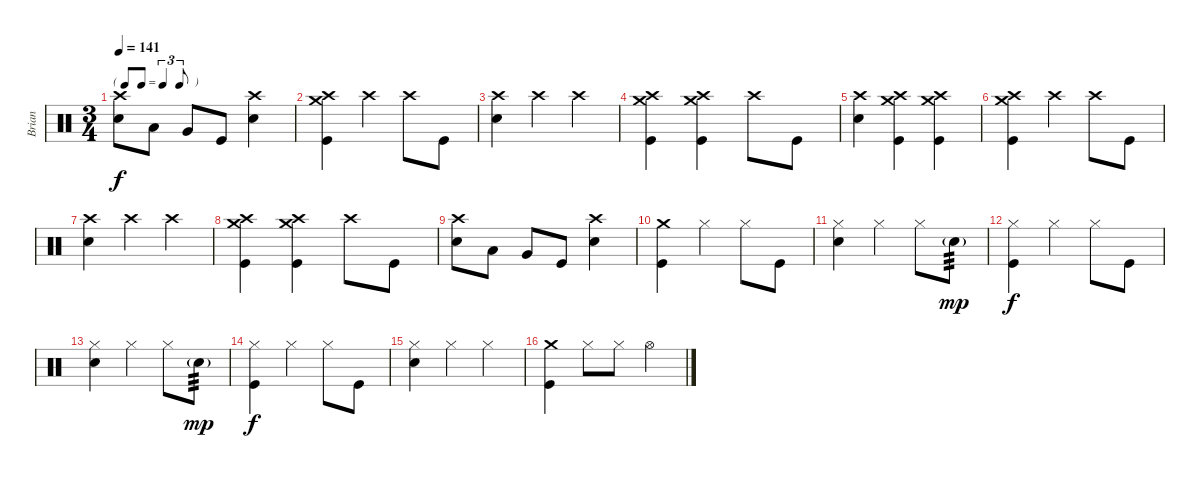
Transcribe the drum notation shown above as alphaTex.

\track ("Brian" "Brian") {instrument percussion}
\staff {score}
\articulation defaults
\ts (3 4)
\tf triplet8th
\tempo 141
\clef neutral
\ks c
("Crash high (hit)" "Electric Snare (hit)").8{dy f} "Low Tom (hit)".8 "Very Low Tom (hit)".8 "Kick (hit)".8 ("Crash high (hit)" "Electric Snare (hit)").4 |
("Crash medium (hit)" "Crash high (hit)" "Kick (hit)").4 "Crash high (hit)".4 "Crash high (hit)".8 "Kick (hit)".8 |
("Crash high (hit)" "Electric Snare (hit)").4 "Crash high (hit)".4 "Crash high (hit)".4 |
("Crash medium (hit)" "Crash high (hit)" "Kick (hit)").4 ("Crash medium (hit)" "Crash high (hit)" "Kick (hit)").4 "Crash high (hit)".8 "Kick (hit)".8 |
("Crash high (hit)" "Electric Snare (hit)").4 ("Crash medium (hit)" "Crash high (hit)" "Kick (hit)").4 ("Crash medium (hit)" "Crash high (hit)" "Kick (hit)").4 |
("Crash medium (hit)" "Crash high (hit)" "Kick (hit)").4 "Crash high (hit)".4 "Crash high (hit)".8 "Kick (hit)".8 |
("Crash high (hit)" "Electric Snare (hit)").4 "Crash high (hit)".4 "Crash high (hit)".4 |
("Crash medium (hit)" "Crash high (hit)" "Kick (hit)").4 ("Crash medium (hit)" "Crash high (hit)" "Kick (hit)").4 "Crash high (hit)".8 "Kick (hit)".8 |
("Crash high (hit)" "Electric Snare (hit)").8 "Low Tom (hit)".8 "Very Low Tom (hit)".8 "Kick (hit)".8 ("Crash high (hit)" "Electric Snare (hit)").4 |
("Crash medium (hit)" "Kick (hit)").4 "Hi-Hat (closed)".4 "Hi-Hat (closed)".8 "Kick (hit)".8 |
("Hi-Hat (closed)" "Electric Snare (hit)").4 "Hi-Hat (closed)".4 "Hi-Hat (closed)".8 "Electric Snare (hit)"{g}.8{tp 3 dy mp volume 7} |
("Hi-Hat (closed)" "Kick (hit)").4{dy f volume 16} "Hi-Hat (closed)".4 "Hi-Hat (closed)".8 "Kick (hit)".8 |
("Hi-Hat (closed)" "Electric Snare (hit)").4 "Hi-Hat (closed)".4 "Hi-Hat (closed)".8 "Electric Snare (hit)"{g}.8{tp 3 dy mp volume 7} |
("Hi-Hat (closed)" "Kick (hit)").4{dy f volume 16} "Hi-Hat (closed)".4 "Hi-Hat (closed)".8 "Kick (hit)".8 |
("Hi-Hat (closed)" "Electric Snare (hit)").4 "Hi-Hat (closed)".4 "Hi-Hat (closed)".4 |
("Crash medium (hit)" "Kick (hit)").4 "Hi-Hat (closed)".8 "Hi-Hat (closed)".8 "Hi-Hat (open)".4
